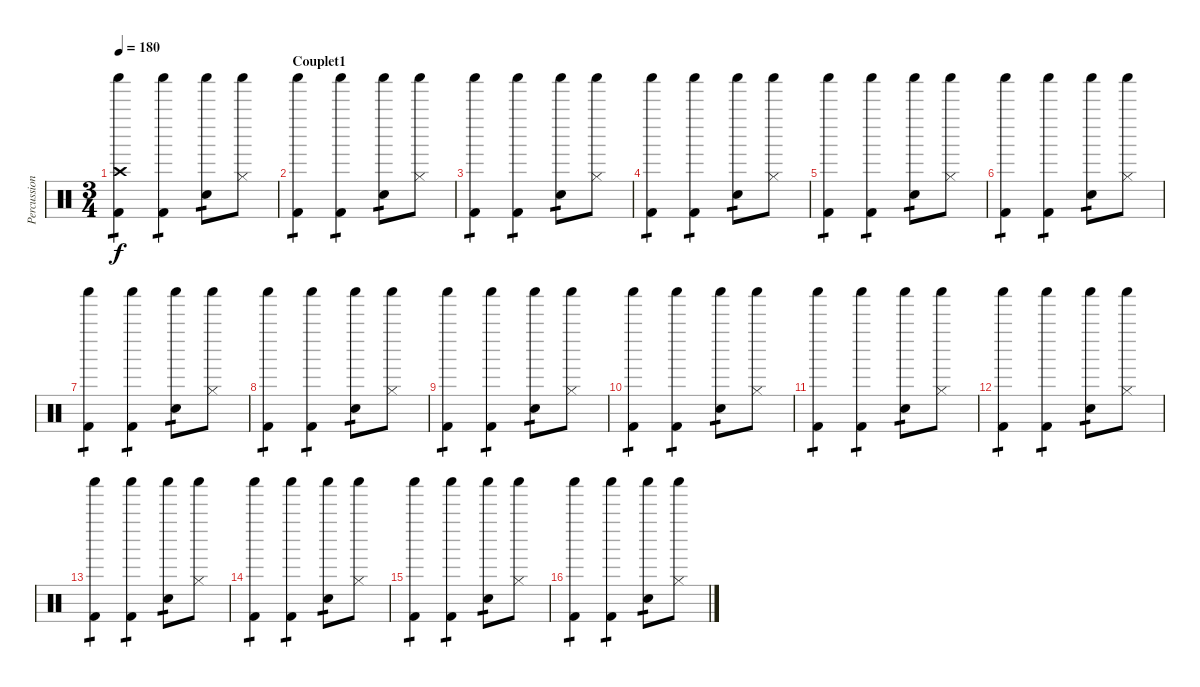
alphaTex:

\track ("Percussions" "Percussion") {instrument percussion}
\staff {score}
\articulation defaults
\ts (3 4)
\tempo 180
\clef neutral
\ks c
("Kick (hit) 2" "Shaker (hit)" "Crash high (hit)").4{tp 1 dy f} ("Kick (hit) 2" "Shaker (hit)").4{tp 1} ("Shaker (hit)" "Snare (hit) 2").8{tp 1} ("Shaker (hit)" "Hi-Hat (closed)").8 |
\section ("" "Couplet1")
("Kick (hit) 2" "Shaker (hit)").4{tp 1} ("Kick (hit) 2" "Shaker (hit)").4{tp 1} ("Shaker (hit)" "Snare (hit) 2").8{tp 1} ("Shaker (hit)" "Hi-Hat (closed)").8 |
("Kick (hit) 2" "Shaker (hit)").4{tp 1} ("Kick (hit) 2" "Shaker (hit)").4{tp 1} ("Shaker (hit)" "Snare (hit) 2").8{tp 1} ("Shaker (hit)" "Hi-Hat (closed)").8 |
("Kick (hit) 2" "Shaker (hit)").4{tp 1} ("Kick (hit) 2" "Shaker (hit)").4{tp 1} ("Shaker (hit)" "Snare (hit) 2").8{tp 1} ("Shaker (hit)" "Hi-Hat (closed)").8 |
("Kick (hit) 2" "Shaker (hit)").4{tp 1} ("Kick (hit) 2" "Shaker (hit)").4{tp 1} ("Shaker (hit)" "Snare (hit) 2").8{tp 1} ("Shaker (hit)" "Hi-Hat (closed)").8 |
("Kick (hit) 2" "Shaker (hit)").4{tp 1} ("Kick (hit) 2" "Shaker (hit)").4{tp 1} ("Shaker (hit)" "Snare (hit) 2").8{tp 1} ("Shaker (hit)" "Hi-Hat (closed)").8 |
("Kick (hit) 2" "Shaker (hit)").4{tp 1} ("Kick (hit) 2" "Shaker (hit)").4{tp 1} ("Shaker (hit)" "Snare (hit) 2").8{tp 1} ("Shaker (hit)" "Hi-Hat (closed)").8 |
("Kick (hit) 2" "Shaker (hit)").4{tp 1} ("Kick (hit) 2" "Shaker (hit)").4{tp 1} ("Shaker (hit)" "Snare (hit) 2").8{tp 1} ("Shaker (hit)" "Hi-Hat (closed)").8 |
("Kick (hit) 2" "Shaker (hit)").4{tp 1} ("Kick (hit) 2" "Shaker (hit)").4{tp 1} ("Shaker (hit)" "Snare (hit) 2").8{tp 1} ("Shaker (hit)" "Hi-Hat (closed)").8 |
("Kick (hit) 2" "Shaker (hit)").4{tp 1} ("Kick (hit) 2" "Shaker (hit)").4{tp 1} ("Shaker (hit)" "Snare (hit) 2").8{tp 1} ("Shaker (hit)" "Hi-Hat (closed)").8 |
("Kick (hit) 2" "Shaker (hit)").4{tp 1} ("Kick (hit) 2" "Shaker (hit)").4{tp 1} ("Shaker (hit)" "Snare (hit) 2").8{tp 1} ("Shaker (hit)" "Hi-Hat (closed)").8 |
("Kick (hit) 2" "Shaker (hit)").4{tp 1} ("Kick (hit) 2" "Shaker (hit)").4{tp 1} ("Shaker (hit)" "Snare (hit) 2").8{tp 1} ("Shaker (hit)" "Hi-Hat (closed)").8 |
("Kick (hit) 2" "Shaker (hit)").4{tp 1} ("Kick (hit) 2" "Shaker (hit)").4{tp 1} ("Shaker (hit)" "Snare (hit) 2").8{tp 1} ("Shaker (hit)" "Hi-Hat (closed)").8 |
("Kick (hit) 2" "Shaker (hit)").4{tp 1} ("Kick (hit) 2" "Shaker (hit)").4{tp 1} ("Shaker (hit)" "Snare (hit) 2").8{tp 1} ("Shaker (hit)" "Hi-Hat (closed)").8 |
("Kick (hit) 2" "Shaker (hit)").4{tp 1} ("Kick (hit) 2" "Shaker (hit)").4{tp 1} ("Shaker (hit)" "Snare (hit) 2").8{tp 1} ("Shaker (hit)" "Hi-Hat (closed)").8 |
("Kick (hit) 2" "Shaker (hit)").4{tp 1} ("Kick (hit) 2" "Shaker (hit)").4{tp 1} ("Shaker (hit)" "Snare (hit) 2").8{tp 1} ("Shaker (hit)" "Hi-Hat (closed)").8
